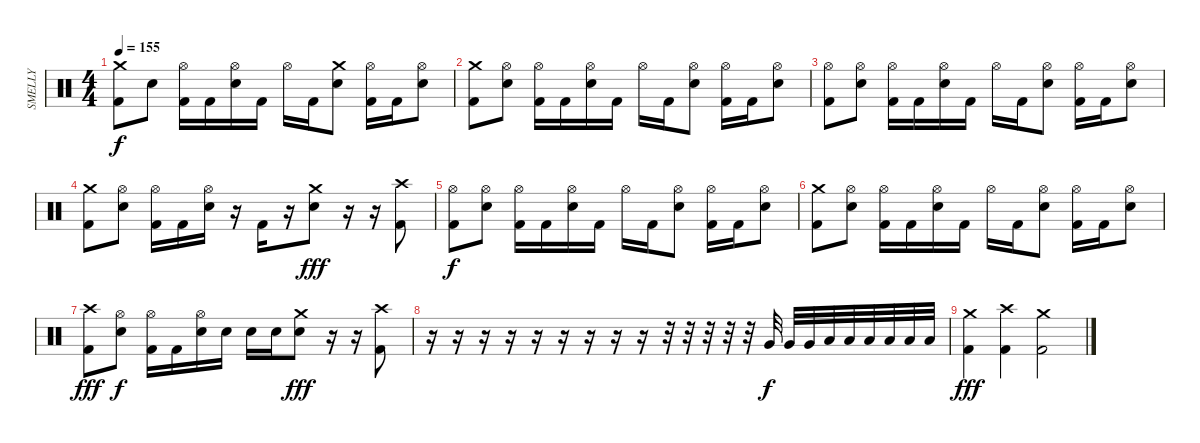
\track ("SMELLY" "SMELLY") {instrument percussion}
\staff {score}
\articulation defaults
\ts (4 4)
\tempo 155
\clef neutral
\ks c
("Crash medium (hit)" "Kick (hit) 2").8{dy f} "Electric Snare (hit)".8 ("Hi-Hat (open)" "Kick (hit) 2").16 "Kick (hit) 2".16 ("Hi-Hat (open)" "Electric Snare (hit)").16 "Kick (hit) 2".16 "Hi-Hat (open)".16 "Kick (hit) 2".16 ("Crash medium (hit)" "Electric Snare (hit)").8 ("Hi-Hat (open)" "Kick (hit) 2").16 "Kick (hit) 2".16 ("Hi-Hat (open)" "Electric Snare (hit)").8 |
("Crash medium (hit)" "Kick (hit) 2").8 ("Hi-Hat (open)" "Electric Snare (hit)").8 ("Hi-Hat (open)" "Kick (hit) 2").16 "Kick (hit) 2".16 ("Hi-Hat (open)" "Electric Snare (hit)").16 "Kick (hit) 2".16 "Hi-Hat (open)".16 "Kick (hit) 2".16 ("Hi-Hat (open)" "Electric Snare (hit)").8 ("Hi-Hat (open)" "Kick (hit) 2").16 "Kick (hit) 2".16 ("Hi-Hat (open)" "Electric Snare (hit)").8 |
("Hi-Hat (open)" "Kick (hit) 2").8 ("Hi-Hat (open)" "Electric Snare (hit)").8 ("Hi-Hat (open)" "Kick (hit) 2").16 "Kick (hit) 2".16 ("Hi-Hat (open)" "Electric Snare (hit)").16 "Kick (hit) 2".16 "Hi-Hat (open)".16 "Kick (hit) 2".16 ("Hi-Hat (open)" "Electric Snare (hit)").8 ("Hi-Hat (open)" "Kick (hit) 2").16 "Kick (hit) 2".16 ("Hi-Hat (open)" "Electric Snare (hit)").8 |
("Crash medium (hit)" "Kick (hit) 2").8 ("Hi-Hat (open)" "Electric Snare (hit)").8 ("Hi-Hat (open)" "Kick (hit) 2").16 "Kick (hit) 2".16 ("Hi-Hat (open)" "Electric Snare (hit)").16 r.16 "Kick (hit) 2".16 r.16 ("Crash medium (hit)" "Electric Snare (hit)").8{dy fff} r.16 r.16 ("Crash high (hit)" "Kick (hit) 2").8 |
("Hi-Hat (open)" "Kick (hit) 2").8{dy f} ("Hi-Hat (open)" "Electric Snare (hit)").8 ("Hi-Hat (open)" "Kick (hit) 2").16 "Kick (hit) 2".16 ("Hi-Hat (open)" "Electric Snare (hit)").16 "Kick (hit) 2".16 "Hi-Hat (open)".16 "Kick (hit) 2".16 ("Hi-Hat (open)" "Electric Snare (hit)").8 ("Hi-Hat (open)" "Kick (hit) 2").16 "Kick (hit) 2".16 ("Hi-Hat (open)" "Electric Snare (hit)").8 |
("Crash medium (hit)" "Kick (hit) 2").8 ("Hi-Hat (open)" "Electric Snare (hit)").8 ("Hi-Hat (open)" "Kick (hit) 2").16 "Kick (hit) 2".16 ("Hi-Hat (open)" "Electric Snare (hit)").16 "Kick (hit) 2".16 "Hi-Hat (open)".16 "Kick (hit) 2".16 ("Hi-Hat (open)" "Electric Snare (hit)").8 ("Hi-Hat (open)" "Kick (hit) 2").16 "Kick (hit) 2".16 ("Hi-Hat (open)" "Electric Snare (hit)").8 |
("Crash high (hit)" "Kick (hit) 2").8{dy fff} ("Hi-Hat (open)" "Electric Snare (hit)").8{dy f} ("Hi-Hat (open)" "Kick (hit) 2").16 "Kick (hit) 2".16 ("Hi-Hat (open)" "Electric Snare (hit)").16 "Electric Snare (hit)".16 "Electric Snare (hit)".16 "Electric Snare (hit)".16 ("Crash medium (hit)" "Electric Snare (hit)").8{dy fff} r.16 r.16 ("Crash high (hit)" "Kick (hit) 2").8 |
r.16 r.16 r.16 r.16 r.16 r.16 r.16 r.16 r.16 r.32 r.32 r.32 r.32 r.32 "Very Low Tom (hit)".32{dy f} "Very Low Tom (hit)".32 "Very Low Tom (hit)".32 "Low Floor Tom (hit)".32 "Low Floor Tom (hit)".32 "Low Floor Tom (hit)".32 "Low Floor Tom (hit)".32 "Low Floor Tom (hit)".32 "Low Floor Tom (hit)".32 |
("Crash medium (hit)" "Kick (hit) 2").4{dy fff} ("Crash high (hit)" "Kick (hit) 2").4 ("Crash medium (hit)" "Kick (hit) 2").2
